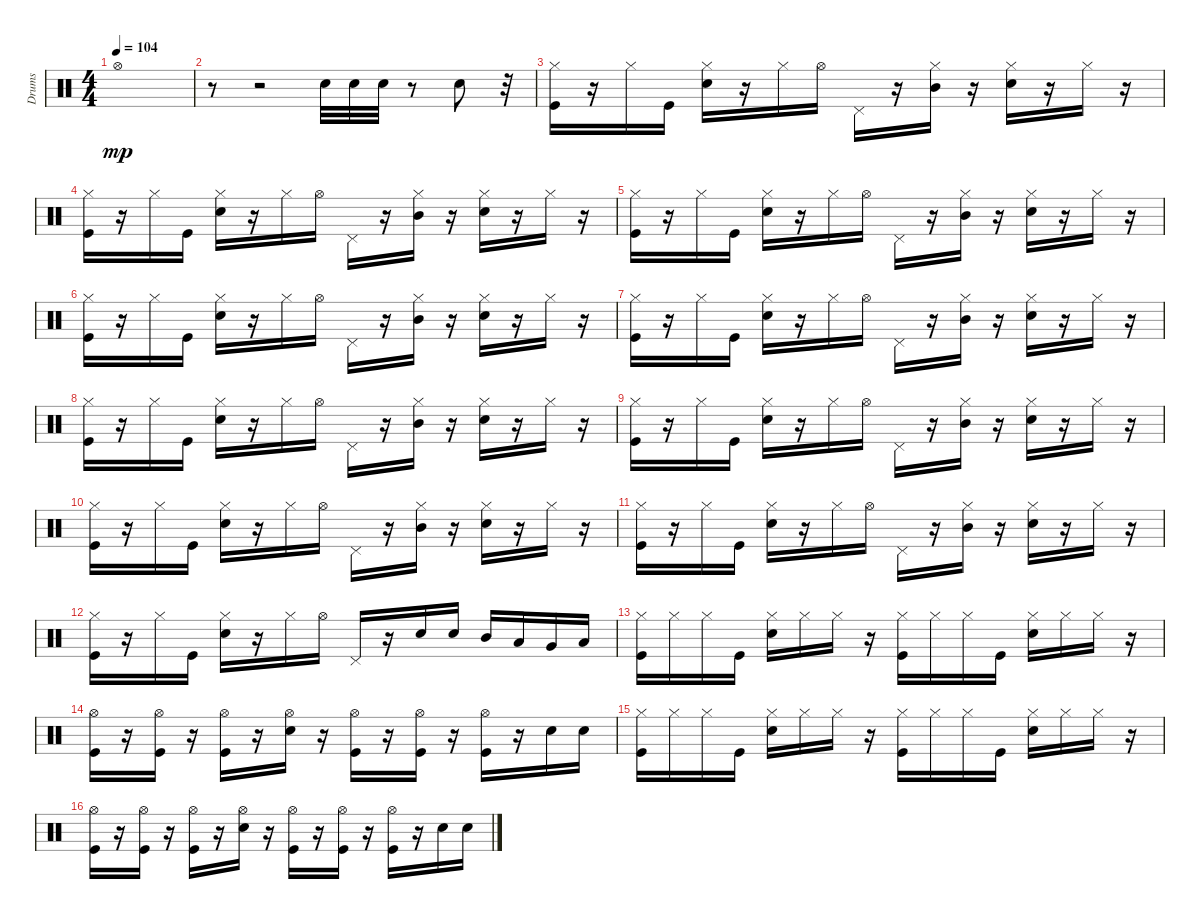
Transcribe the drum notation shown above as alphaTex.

\track ("Drums" "Drums") {instrument percussion}
\staff {score}
\articulation defaults
\ts (4 4)
\tempo 104
\clef neutral
\ks c "Hi-Hat (open)".1{dy mp}
|
r.8 r.2 "Snare (hit) 2".32 "Snare (hit) 2".32 "Snare (hit) 2".32 r.8 "Snare (hit) 2".8 r.32 |
("Hi-Hat (closed)" "Kick (hit)").16 r.16 "Hi-Hat (closed)".16 "Kick (hit)".16 ("Hi-Hat (closed)" "Snare (hit) 2").16 r.16 "Hi-Hat (closed)".16 "Hi-Hat (open)".16 "Pedal Hi-Hat (hit)".16 r.16 ("Hi-Hat (closed)" "Mid Tom (hit)").16 r.16 ("Hi-Hat (closed)" "Snare (hit) 2").16 r.16 "Hi-Hat (closed)".16 r.16 |
("Hi-Hat (closed)" "Kick (hit)").16 r.16 "Hi-Hat (closed)".16 "Kick (hit)".16 ("Hi-Hat (closed)" "Snare (hit) 2").16 r.16 "Hi-Hat (closed)".16 "Hi-Hat (open)".16 "Pedal Hi-Hat (hit)".16 r.16 ("Hi-Hat (closed)" "Mid Tom (hit)").16 r.16 ("Hi-Hat (closed)" "Snare (hit) 2").16 r.16 "Hi-Hat (closed)".16 r.16 |
("Hi-Hat (closed)" "Kick (hit)").16 r.16 "Hi-Hat (closed)".16 "Kick (hit)".16 ("Hi-Hat (closed)" "Snare (hit) 2").16 r.16 "Hi-Hat (closed)".16 "Hi-Hat (open)".16 "Pedal Hi-Hat (hit)".16 r.16 ("Hi-Hat (closed)" "Mid Tom (hit)").16 r.16 ("Hi-Hat (closed)" "Snare (hit) 2").16 r.16 "Hi-Hat (closed)".16 r.16 |
("Hi-Hat (closed)" "Kick (hit)").16 r.16 "Hi-Hat (closed)".16 "Kick (hit)".16 ("Hi-Hat (closed)" "Snare (hit) 2").16 r.16 "Hi-Hat (closed)".16 "Hi-Hat (open)".16 "Pedal Hi-Hat (hit)".16 r.16 ("Hi-Hat (closed)" "Mid Tom (hit)").16 r.16 ("Hi-Hat (closed)" "Snare (hit) 2").16 r.16 "Hi-Hat (closed)".16 r.16 |
("Hi-Hat (closed)" "Kick (hit)").16 r.16 "Hi-Hat (closed)".16 "Kick (hit)".16 ("Hi-Hat (closed)" "Snare (hit) 2").16 r.16 "Hi-Hat (closed)".16 "Hi-Hat (open)".16 "Pedal Hi-Hat (hit)".16 r.16 ("Hi-Hat (closed)" "Mid Tom (hit)").16 r.16 ("Hi-Hat (closed)" "Snare (hit) 2").16 r.16 "Hi-Hat (closed)".16 r.16 |
("Hi-Hat (closed)" "Kick (hit)").16 r.16 "Hi-Hat (closed)".16 "Kick (hit)".16 ("Hi-Hat (closed)" "Snare (hit) 2").16 r.16 "Hi-Hat (closed)".16 "Hi-Hat (open)".16 "Pedal Hi-Hat (hit)".16 r.16 ("Hi-Hat (closed)" "Mid Tom (hit)").16 r.16 ("Hi-Hat (closed)" "Snare (hit) 2").16 r.16 "Hi-Hat (closed)".16 r.16 |
("Hi-Hat (closed)" "Kick (hit)").16 r.16 "Hi-Hat (closed)".16 "Kick (hit)".16 ("Hi-Hat (closed)" "Snare (hit) 2").16 r.16 "Hi-Hat (closed)".16 "Hi-Hat (open)".16 "Pedal Hi-Hat (hit)".16 r.16 ("Hi-Hat (closed)" "Mid Tom (hit)").16 r.16 ("Hi-Hat (closed)" "Snare (hit) 2").16 r.16 "Hi-Hat (closed)".16 r.16 |
("Hi-Hat (closed)" "Kick (hit)").16 r.16 "Hi-Hat (closed)".16 "Kick (hit)".16 ("Hi-Hat (closed)" "Snare (hit) 2").16 r.16 "Hi-Hat (closed)".16 "Hi-Hat (open)".16 "Pedal Hi-Hat (hit)".16 r.16 ("Hi-Hat (closed)" "Mid Tom (hit)").16 r.16 ("Hi-Hat (closed)" "Snare (hit) 2").16 r.16 "Hi-Hat (closed)".16 r.16 |
("Hi-Hat (closed)" "Kick (hit)").16 r.16 "Hi-Hat (closed)".16 "Kick (hit)".16 ("Hi-Hat (closed)" "Snare (hit) 2").16 r.16 "Hi-Hat (closed)".16 "Hi-Hat (open)".16 "Pedal Hi-Hat (hit)".16 r.16 ("Hi-Hat (closed)" "Mid Tom (hit)").16 r.16 ("Hi-Hat (closed)" "Snare (hit) 2").16 r.16 "Hi-Hat (closed)".16 r.16 |
("Hi-Hat (closed)" "Kick (hit)").16 r.16 "Hi-Hat (closed)".16 "Kick (hit)".16 ("Hi-Hat (closed)" "Snare (hit) 2").16 r.16 "Hi-Hat (closed)".16 "Hi-Hat (open)".16 "Pedal Hi-Hat (hit)".16 r.16 "Snare (hit) 2".16 "Snare (hit) 2".16 "Mid Tom (hit)".16 "Low Tom (hit)".16 "Very Low Tom (hit)".16 "Low Tom (hit)".16 |
("Hi-Hat (closed)" "Kick (hit)").16 "Hi-Hat (closed)".16 "Hi-Hat (closed)".16 "Kick (hit)".16 ("Hi-Hat (closed)" "Snare (hit) 2").16 "Hi-Hat (closed)".16 "Hi-Hat (closed)".16 r.16 ("Hi-Hat (closed)" "Kick (hit)").16 "Hi-Hat (closed)".16 "Hi-Hat (closed)".16 "Kick (hit)".16 ("Hi-Hat (closed)" "Snare (hit) 2").16 "Hi-Hat (closed)".16 "Hi-Hat (closed)".16 r.16 |
("Hi-Hat (open)" "Kick (hit)").16 r.16 ("Hi-Hat (open)" "Kick (hit)").16 r.16 ("Hi-Hat (open)" "Kick (hit)").16 r.16 ("Hi-Hat (open)" "Snare (hit) 2").16 r.16 ("Hi-Hat (open)" "Kick (hit)").16 r.16 ("Hi-Hat (open)" "Kick (hit)").16 r.16 ("Hi-Hat (open)" "Kick (hit)").16 r.16 "Snare (hit) 2".16 "Snare (hit) 2".16 |
("Hi-Hat (closed)" "Kick (hit)").16 "Hi-Hat (closed)".16 "Hi-Hat (closed)".16 "Kick (hit)".16 ("Hi-Hat (closed)" "Snare (hit) 2").16 "Hi-Hat (closed)".16 "Hi-Hat (closed)".16 r.16 ("Hi-Hat (closed)" "Kick (hit)").16 "Hi-Hat (closed)".16 "Hi-Hat (closed)".16 "Kick (hit)".16 ("Hi-Hat (closed)" "Snare (hit) 2").16 "Hi-Hat (closed)".16 "Hi-Hat (closed)".16 r.16 |
("Hi-Hat (open)" "Kick (hit)").16 r.16 ("Hi-Hat (open)" "Kick (hit)").16 r.16 ("Hi-Hat (open)" "Kick (hit)").16 r.16 ("Hi-Hat (open)" "Snare (hit) 2").16 r.16 ("Hi-Hat (open)" "Kick (hit)").16 r.16 ("Hi-Hat (open)" "Kick (hit)").16 r.16 ("Hi-Hat (open)" "Kick (hit)").16 r.16 "Snare (hit) 2".16 "Snare (hit) 2".16
